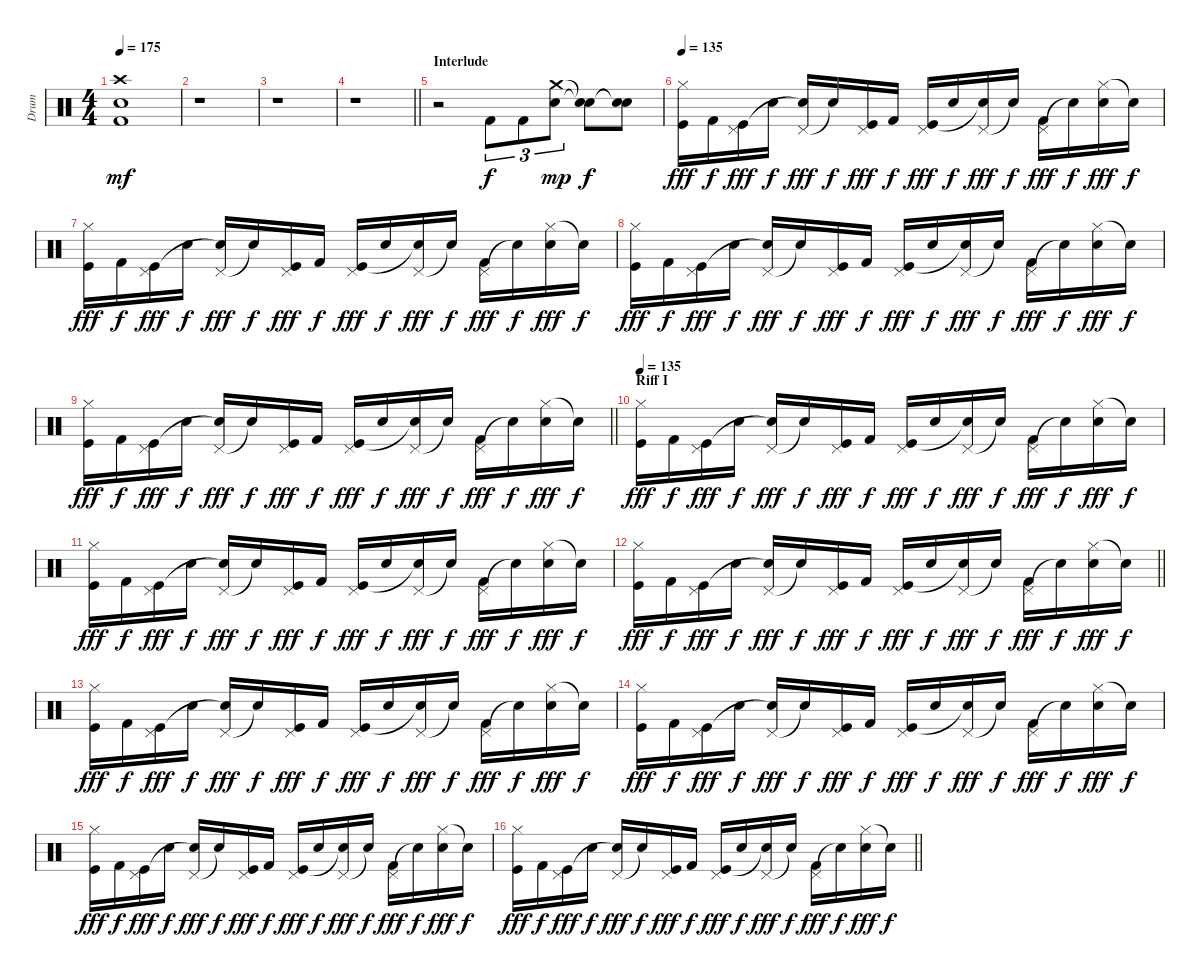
\track ("Drum" "Drum") {instrument percussion}
\staff {score}
\articulation defaults
\ts (4 4)
\tempo 175
\clef neutral
\ks c
("Crash high (hit)" "Electric Snare (hit)" "Kick (hit) 2").1{dy mf} |
r.1 |
r.1 |
\barLineRight lightlight
r.1 |
\section ("" "Interlude")
r.2 "Kick (hit) 2".8{tu (3 2) dy f} "Kick (hit) 2".8{tu (3 2)} ("Crash medium (hit)" "Electric Snare (hit)").8{tu (3 2) dy mp} ("Snare (hit)"{t} "Snare (hit)"{t}).8{dy f} ("Snare (hit)"{t} "Snare (hit)"{t}).8 |
\tempo 135
("Hi-Hat (closed)" "Kick (hit)").16{dy fff} "Kick (hit) 2".16{dy f} ("Pedal Hi-Hat (hit)" "Kick (hit)").16{dy fff} "Electric Snare (hit)".16{dy f} ("Pedal Hi-Hat (hit)" "Snare (hit)"{t}).16{dy fff} "Snare (hit)"{t}.16{dy f} ("Pedal Hi-Hat (hit)" "Kick (hit)").16{dy fff} "Kick (hit) 2".16{dy f} ("Pedal Hi-Hat (hit)" "Kick (hit)").16{dy fff} "Electric Snare (hit)".16{dy f} ("Pedal Hi-Hat (hit)" "Snare (hit)"{t}).16{dy fff} "Snare (hit)"{t}.16{dy f} ("Pedal Hi-Hat (hit)" "Kick (hit) 2").16{dy fff} "Snare (hit)"{t}.16{dy f} ("Hi-Hat (closed)" "Electric Snare (hit)").16{dy fff} "Snare (hit)"{t}.16{dy f} |
("Hi-Hat (closed)" "Kick (hit)").16{dy fff} "Kick (hit) 2".16{dy f} ("Pedal Hi-Hat (hit)" "Kick (hit)").16{dy fff} "Electric Snare (hit)".16{dy f} ("Pedal Hi-Hat (hit)" "Snare (hit)"{t}).16{dy fff} "Snare (hit)"{t}.16{dy f} ("Pedal Hi-Hat (hit)" "Kick (hit)").16{dy fff} "Kick (hit) 2".16{dy f} ("Pedal Hi-Hat (hit)" "Kick (hit)").16{dy fff} "Electric Snare (hit)".16{dy f} ("Pedal Hi-Hat (hit)" "Snare (hit)"{t}).16{dy fff} "Snare (hit)"{t}.16{dy f} ("Pedal Hi-Hat (hit)" "Kick (hit) 2").16{dy fff} "Snare (hit)"{t}.16{dy f} ("Hi-Hat (closed)" "Electric Snare (hit)").16{dy fff} "Snare (hit)"{t}.16{dy f} |
("Hi-Hat (closed)" "Kick (hit)").16{dy fff} "Kick (hit) 2".16{dy f} ("Pedal Hi-Hat (hit)" "Kick (hit)").16{dy fff} "Electric Snare (hit)".16{dy f} ("Pedal Hi-Hat (hit)" "Snare (hit)"{t}).16{dy fff} "Snare (hit)"{t}.16{dy f} ("Pedal Hi-Hat (hit)" "Kick (hit)").16{dy fff} "Kick (hit) 2".16{dy f} ("Pedal Hi-Hat (hit)" "Kick (hit)").16{dy fff} "Electric Snare (hit)".16{dy f} ("Pedal Hi-Hat (hit)" "Snare (hit)"{t}).16{dy fff} "Snare (hit)"{t}.16{dy f} ("Pedal Hi-Hat (hit)" "Kick (hit) 2").16{dy fff} "Snare (hit)"{t}.16{dy f} ("Hi-Hat (closed)" "Electric Snare (hit)").16{dy fff} "Snare (hit)"{t}.16{dy f} |
\barLineRight lightlight
("Hi-Hat (closed)" "Kick (hit)").16{dy fff} "Kick (hit) 2".16{dy f} ("Pedal Hi-Hat (hit)" "Kick (hit)").16{dy fff} "Electric Snare (hit)".16{dy f} ("Pedal Hi-Hat (hit)" "Snare (hit)"{t}).16{dy fff} "Snare (hit)"{t}.16{dy f} ("Pedal Hi-Hat (hit)" "Kick (hit)").16{dy fff} "Kick (hit) 2".16{dy f} ("Pedal Hi-Hat (hit)" "Kick (hit)").16{dy fff} "Electric Snare (hit)".16{dy f} ("Pedal Hi-Hat (hit)" "Snare (hit)"{t}).16{dy fff} "Snare (hit)"{t}.16{dy f} ("Pedal Hi-Hat (hit)" "Kick (hit) 2").16{dy fff} "Snare (hit)"{t}.16{dy f} ("Hi-Hat (closed)" "Electric Snare (hit)").16{dy fff} "Snare (hit)"{t}.16{dy f} |
\section ("" "Riff I")
\tempo 135
("Hi-Hat (closed)" "Kick (hit)").16{dy fff} "Kick (hit) 2".16{dy f} ("Pedal Hi-Hat (hit)" "Kick (hit)").16{dy fff} "Electric Snare (hit)".16{dy f} ("Pedal Hi-Hat (hit)" "Snare (hit)"{t}).16{dy fff} "Snare (hit)"{t}.16{dy f} ("Pedal Hi-Hat (hit)" "Kick (hit)").16{dy fff} "Kick (hit) 2".16{dy f} ("Pedal Hi-Hat (hit)" "Kick (hit)").16{dy fff} "Electric Snare (hit)".16{dy f} ("Pedal Hi-Hat (hit)" "Snare (hit)"{t}).16{dy fff} "Snare (hit)"{t}.16{dy f} ("Pedal Hi-Hat (hit)" "Kick (hit) 2").16{dy fff} "Snare (hit)"{t}.16{dy f} ("Hi-Hat (closed)" "Electric Snare (hit)").16{dy fff} "Snare (hit)"{t}.16{dy f} |
("Hi-Hat (closed)" "Kick (hit)").16{dy fff} "Kick (hit) 2".16{dy f} ("Pedal Hi-Hat (hit)" "Kick (hit)").16{dy fff} "Electric Snare (hit)".16{dy f} ("Pedal Hi-Hat (hit)" "Snare (hit)"{t}).16{dy fff} "Snare (hit)"{t}.16{dy f} ("Pedal Hi-Hat (hit)" "Kick (hit)").16{dy fff} "Kick (hit) 2".16{dy f} ("Pedal Hi-Hat (hit)" "Kick (hit)").16{dy fff} "Electric Snare (hit)".16{dy f} ("Pedal Hi-Hat (hit)" "Snare (hit)"{t}).16{dy fff} "Snare (hit)"{t}.16{dy f} ("Pedal Hi-Hat (hit)" "Kick (hit) 2").16{dy fff} "Snare (hit)"{t}.16{dy f} ("Hi-Hat (closed)" "Electric Snare (hit)").16{dy fff} "Snare (hit)"{t}.16{dy f} |
\barLineRight lightlight
("Hi-Hat (closed)" "Kick (hit)").16{dy fff} "Kick (hit) 2".16{dy f} ("Pedal Hi-Hat (hit)" "Kick (hit)").16{dy fff} "Electric Snare (hit)".16{dy f} ("Pedal Hi-Hat (hit)" "Snare (hit)"{t}).16{dy fff} "Snare (hit)"{t}.16{dy f} ("Pedal Hi-Hat (hit)" "Kick (hit)").16{dy fff} "Kick (hit) 2".16{dy f} ("Pedal Hi-Hat (hit)" "Kick (hit)").16{dy fff} "Electric Snare (hit)".16{dy f} ("Pedal Hi-Hat (hit)" "Snare (hit)"{t}).16{dy fff} "Snare (hit)"{t}.16{dy f} ("Pedal Hi-Hat (hit)" "Kick (hit) 2").16{dy fff} "Snare (hit)"{t}.16{dy f} ("Hi-Hat (closed)" "Electric Snare (hit)").16{dy fff} "Snare (hit)"{t}.16{dy f} |
("Hi-Hat (closed)" "Kick (hit)").16{dy fff} "Kick (hit) 2".16{dy f} ("Pedal Hi-Hat (hit)" "Kick (hit)").16{dy fff} "Electric Snare (hit)".16{dy f} ("Pedal Hi-Hat (hit)" "Snare (hit)"{t}).16{dy fff} "Snare (hit)"{t}.16{dy f} ("Pedal Hi-Hat (hit)" "Kick (hit)").16{dy fff} "Kick (hit) 2".16{dy f} ("Pedal Hi-Hat (hit)" "Kick (hit)").16{dy fff} "Electric Snare (hit)".16{dy f} ("Pedal Hi-Hat (hit)" "Snare (hit)"{t}).16{dy fff} "Snare (hit)"{t}.16{dy f} ("Pedal Hi-Hat (hit)" "Kick (hit) 2").16{dy fff} "Snare (hit)"{t}.16{dy f} ("Hi-Hat (closed)" "Electric Snare (hit)").16{dy fff} "Snare (hit)"{t}.16{dy f} |
("Hi-Hat (closed)" "Kick (hit)").16{dy fff} "Kick (hit) 2".16{dy f} ("Pedal Hi-Hat (hit)" "Kick (hit)").16{dy fff} "Electric Snare (hit)".16{dy f} ("Pedal Hi-Hat (hit)" "Snare (hit)"{t}).16{dy fff} "Snare (hit)"{t}.16{dy f} ("Pedal Hi-Hat (hit)" "Kick (hit)").16{dy fff} "Kick (hit) 2".16{dy f} ("Pedal Hi-Hat (hit)" "Kick (hit)").16{dy fff} "Electric Snare (hit)".16{dy f} ("Pedal Hi-Hat (hit)" "Snare (hit)"{t}).16{dy fff} "Snare (hit)"{t}.16{dy f} ("Pedal Hi-Hat (hit)" "Kick (hit) 2").16{dy fff} "Snare (hit)"{t}.16{dy f} ("Hi-Hat (closed)" "Electric Snare (hit)").16{dy fff} "Snare (hit)"{t}.16{dy f} |
("Hi-Hat (closed)" "Kick (hit)").16{dy fff} "Kick (hit) 2".16{dy f} ("Pedal Hi-Hat (hit)" "Kick (hit)").16{dy fff} "Electric Snare (hit)".16{dy f} ("Pedal Hi-Hat (hit)" "Snare (hit)"{t}).16{dy fff} "Snare (hit)"{t}.16{dy f} ("Pedal Hi-Hat (hit)" "Kick (hit)").16{dy fff} "Kick (hit) 2".16{dy f} ("Pedal Hi-Hat (hit)" "Kick (hit)").16{dy fff} "Electric Snare (hit)".16{dy f} ("Pedal Hi-Hat (hit)" "Snare (hit)"{t}).16{dy fff} "Snare (hit)"{t}.16{dy f} ("Pedal Hi-Hat (hit)" "Kick (hit) 2").16{dy fff} "Snare (hit)"{t}.16{dy f} ("Hi-Hat (closed)" "Electric Snare (hit)").16{dy fff} "Snare (hit)"{t}.16{dy f} |
\barLineRight lightlight
("Hi-Hat (closed)" "Kick (hit)").16{dy fff} "Kick (hit) 2".16{dy f} ("Pedal Hi-Hat (hit)" "Kick (hit)").16{dy fff} "Electric Snare (hit)".16{dy f} ("Pedal Hi-Hat (hit)" "Snare (hit)"{t}).16{dy fff} "Snare (hit)"{t}.16{dy f} ("Pedal Hi-Hat (hit)" "Kick (hit)").16{dy fff} "Kick (hit) 2".16{dy f} ("Pedal Hi-Hat (hit)" "Kick (hit)").16{dy fff} "Electric Snare (hit)".16{dy f} ("Pedal Hi-Hat (hit)" "Snare (hit)"{t}).16{dy fff} "Snare (hit)"{t}.16{dy f} ("Pedal Hi-Hat (hit)" "Kick (hit) 2").16{dy fff} "Snare (hit)"{t}.16{dy f} ("Hi-Hat (closed)" "Electric Snare (hit)").16{dy fff} "Snare (hit)"{t}.16{dy f}
